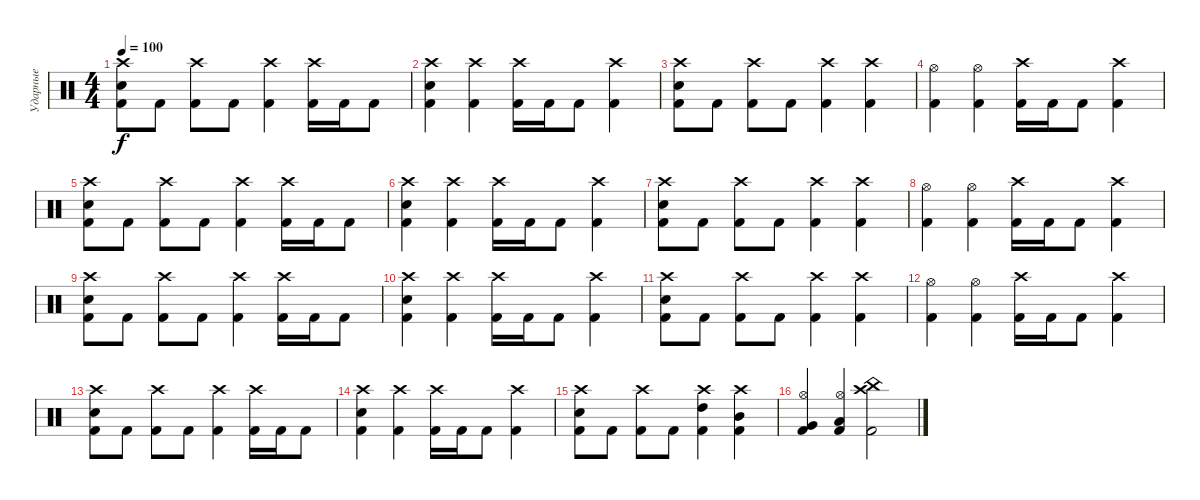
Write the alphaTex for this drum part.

\track ("Ударные" "Ударные") {instrument percussion}
\staff {score}
\articulation defaults
\ts (4 4)
\tempo 100
\clef neutral
\ks c
("Crash high (hit)" "Snare (hit) 2" "Kick (hit) 2").8{dy f} "Kick (hit) 2".8 ("Crash high (hit)" "Kick (hit) 2").8 "Kick (hit) 2".8 ("Crash high (hit)" "Kick (hit) 2").4 ("Crash high (hit)" "Kick (hit) 2").16 "Kick (hit) 2".16 "Kick (hit) 2".8 |
("Crash high (hit)" "Snare (hit) 2" "Kick (hit) 2").4 ("Crash high (hit)" "Kick (hit) 2").4 ("Crash high (hit)" "Kick (hit) 2").16 "Kick (hit) 2".16 "Kick (hit) 2".8 ("Crash high (hit)" "Kick (hit) 2").4 |
("Crash high (hit)" "Snare (hit) 2" "Kick (hit) 2").8 "Kick (hit) 2".8 ("Crash high (hit)" "Kick (hit) 2").8 "Kick (hit) 2".8 ("Crash high (hit)" "Kick (hit) 2").4 ("Crash high (hit)" "Kick (hit) 2").4 |
("Hi-Hat (open)" "Kick (hit) 2").4 ("Hi-Hat (open)" "Kick (hit) 2").4 ("Crash high (hit)" "Kick (hit) 2").16 "Kick (hit) 2".16 "Kick (hit) 2".8 ("Crash high (hit)" "Kick (hit) 2").4 |
("Crash high (hit)" "Snare (hit) 2" "Kick (hit) 2").8 "Kick (hit) 2".8 ("Crash high (hit)" "Kick (hit) 2").8 "Kick (hit) 2".8 ("Crash high (hit)" "Kick (hit) 2").4 ("Crash high (hit)" "Kick (hit) 2").16 "Kick (hit) 2".16 "Kick (hit) 2".8 |
("Crash high (hit)" "Snare (hit) 2" "Kick (hit) 2").4 ("Crash high (hit)" "Kick (hit) 2").4 ("Crash high (hit)" "Kick (hit) 2").16 "Kick (hit) 2".16 "Kick (hit) 2".8 ("Crash high (hit)" "Kick (hit) 2").4 |
("Crash high (hit)" "Snare (hit) 2" "Kick (hit) 2").8 "Kick (hit) 2".8 ("Crash high (hit)" "Kick (hit) 2").8 "Kick (hit) 2".8 ("Crash high (hit)" "Kick (hit) 2").4 ("Crash high (hit)" "Kick (hit) 2").4 |
("Hi-Hat (open)" "Kick (hit) 2").4 ("Hi-Hat (open)" "Kick (hit) 2").4 ("Crash high (hit)" "Kick (hit) 2").16 "Kick (hit) 2".16 "Kick (hit) 2".8 ("Crash high (hit)" "Kick (hit) 2").4 |
("Crash high (hit)" "Snare (hit) 2" "Kick (hit) 2").8 "Kick (hit) 2".8 ("Crash high (hit)" "Kick (hit) 2").8 "Kick (hit) 2".8 ("Crash high (hit)" "Kick (hit) 2").4 ("Crash high (hit)" "Kick (hit) 2").16 "Kick (hit) 2".16 "Kick (hit) 2".8 |
("Crash high (hit)" "Snare (hit) 2" "Kick (hit) 2").4 ("Crash high (hit)" "Kick (hit) 2").4 ("Crash high (hit)" "Kick (hit) 2").16 "Kick (hit) 2".16 "Kick (hit) 2".8 ("Crash high (hit)" "Kick (hit) 2").4 |
("Crash high (hit)" "Snare (hit) 2" "Kick (hit) 2").8 "Kick (hit) 2".8 ("Crash high (hit)" "Kick (hit) 2").8 "Kick (hit) 2".8 ("Crash high (hit)" "Kick (hit) 2").4 ("Crash high (hit)" "Kick (hit) 2").4 |
("Hi-Hat (open)" "Kick (hit) 2").4 ("Hi-Hat (open)" "Kick (hit) 2").4 ("Crash high (hit)" "Kick (hit) 2").16 "Kick (hit) 2".16 "Kick (hit) 2".8 ("Crash high (hit)" "Kick (hit) 2").4 |
("Crash high (hit)" "Snare (hit) 2" "Kick (hit) 2").8 "Kick (hit) 2".8 ("Crash high (hit)" "Kick (hit) 2").8 "Kick (hit) 2".8 ("Crash high (hit)" "Kick (hit) 2").4 ("Crash high (hit)" "Kick (hit) 2").16 "Kick (hit) 2".16 "Kick (hit) 2".8 |
("Crash high (hit)" "Snare (hit) 2" "Kick (hit) 2").4 ("Crash high (hit)" "Kick (hit) 2").4 ("Crash high (hit)" "Kick (hit) 2").16 "Kick (hit) 2".16 "Kick (hit) 2".8 ("Crash high (hit)" "Kick (hit) 2").4 |
("Crash high (hit)" "Snare (hit) 2" "Kick (hit) 2").8 "Kick (hit) 2".8 ("Crash high (hit)" "Kick (hit) 2").8 "Kick (hit) 2".8 ("Crash high (hit)" "High Tom (hit)" "Kick (hit) 2").4 ("Crash high (hit)" "Mid Tom (hit)" "Kick (hit) 2").4 |
("Hi-Hat (open)" "Very Low Tom (hit)" "Kick (hit) 2").4 ("Hi-Hat (open)" "Low Tom (hit)" "Kick (hit) 2").4 ("Crash high (hit)" "China (hit)" "Kick (hit) 2").2
